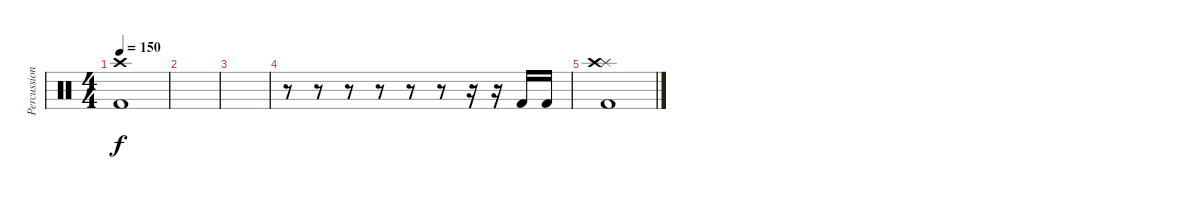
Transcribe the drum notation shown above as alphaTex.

\track ("Percussion" "Percussion") {instrument percussion}
\staff {score}
\articulation defaults
\ts (4 4)
\tempo 150
\clef neutral
\ks c
("Crash high (hit)" "Kick (hit) 2").1{dy f} |
|
|
r.8 r.8 r.8 r.8 r.8 r.8 r.16 r.16 "Kick (hit) 2".16 "Kick (hit) 2".16 |
("Splash (hit)" "Crash high (hit)" "Kick (hit) 2").1
